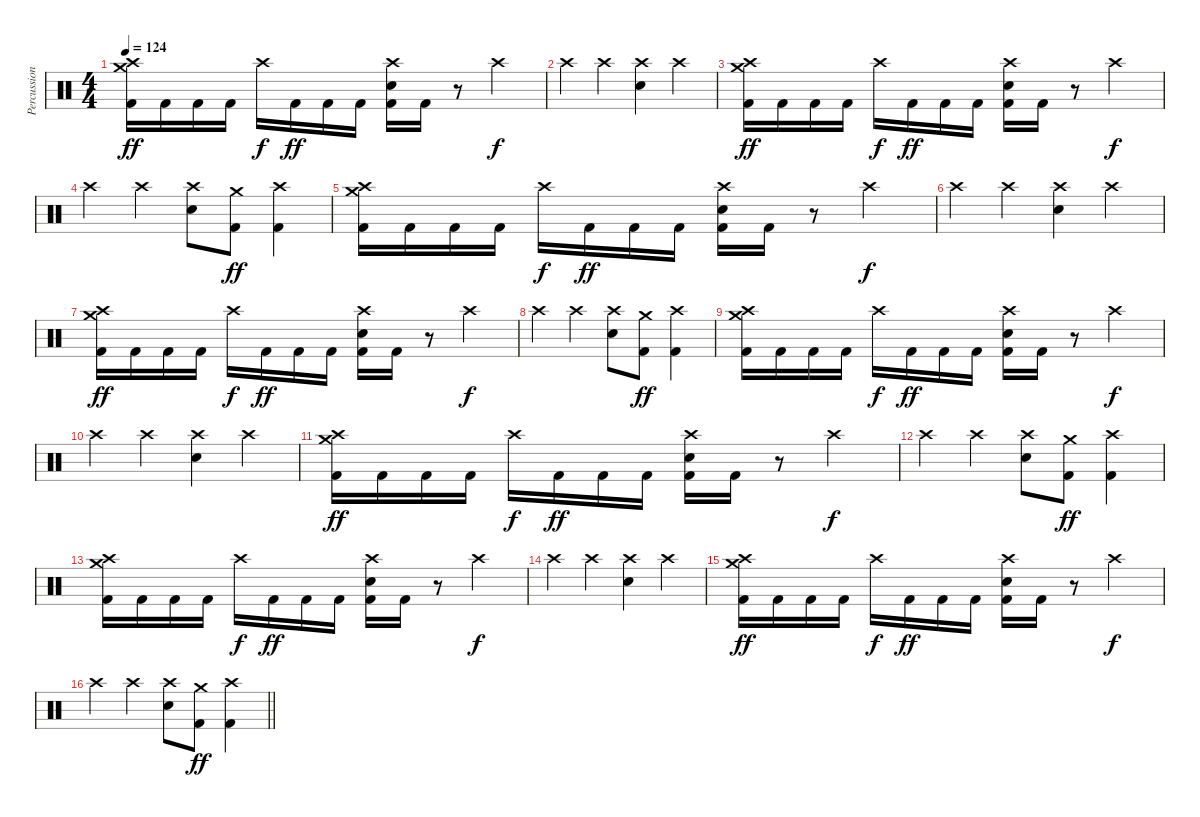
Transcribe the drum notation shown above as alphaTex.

\track ("Percussion" "Percussion") {instrument percussion}
\staff {score}
\articulation defaults
\ts (4 4)
\tempo 124
\clef neutral
\ks c
("Crash medium (hit)" "Crash high (hit)" "Kick (hit) 2").16{dy ff} "Kick (hit) 2".16 "Kick (hit) 2".16 "Kick (hit) 2".16 "Crash high (hit)".16{dy f} "Kick (hit) 2".16{dy ff} "Kick (hit) 2".16 "Kick (hit) 2".16 ("Crash high (hit)" "Electric Snare (hit)" "Kick (hit) 2").16 "Kick (hit) 2".16 r.8 "Crash high (hit)".4{dy f} |
"Crash high (hit)".4 "Crash high (hit)".4 ("Crash high (hit)" "Electric Snare (hit)").4 "Crash high (hit)".4 |
("Crash medium (hit)" "Crash high (hit)" "Kick (hit) 2").16{dy ff} "Kick (hit) 2".16 "Kick (hit) 2".16 "Kick (hit) 2".16 "Crash high (hit)".16{dy f} "Kick (hit) 2".16{dy ff} "Kick (hit) 2".16 "Kick (hit) 2".16 ("Crash high (hit)" "Electric Snare (hit)" "Kick (hit) 2").16 "Kick (hit) 2".16 r.8 "Crash high (hit)".4{dy f} |
"Crash high (hit)".4 "Crash high (hit)".4 ("Crash high (hit)" "Electric Snare (hit)").8 ("Crash medium (hit)" "Kick (hit) 2").8{dy ff} ("Crash high (hit)" "Kick (hit) 2").4 |
("Crash medium (hit)" "Crash high (hit)" "Kick (hit) 2").16 "Kick (hit) 2".16 "Kick (hit) 2".16 "Kick (hit) 2".16 "Crash high (hit)".16{dy f} "Kick (hit) 2".16{dy ff} "Kick (hit) 2".16 "Kick (hit) 2".16 ("Crash high (hit)" "Electric Snare (hit)" "Kick (hit) 2").16 "Kick (hit) 2".16 r.8 "Crash high (hit)".4{dy f} |
"Crash high (hit)".4 "Crash high (hit)".4 ("Crash high (hit)" "Electric Snare (hit)").4 "Crash high (hit)".4 |
("Crash medium (hit)" "Crash high (hit)" "Kick (hit) 2").16{dy ff} "Kick (hit) 2".16 "Kick (hit) 2".16 "Kick (hit) 2".16 "Crash high (hit)".16{dy f} "Kick (hit) 2".16{dy ff} "Kick (hit) 2".16 "Kick (hit) 2".16 ("Crash high (hit)" "Electric Snare (hit)" "Kick (hit) 2").16 "Kick (hit) 2".16 r.8 "Crash high (hit)".4{dy f} |
"Crash high (hit)".4 "Crash high (hit)".4 ("Crash high (hit)" "Electric Snare (hit)").8 ("Crash medium (hit)" "Kick (hit) 2").8{dy ff} ("Crash high (hit)" "Kick (hit) 2").4 |
("Crash medium (hit)" "Crash high (hit)" "Kick (hit) 2").16 "Kick (hit) 2".16 "Kick (hit) 2".16 "Kick (hit) 2".16 "Crash high (hit)".16{dy f} "Kick (hit) 2".16{dy ff} "Kick (hit) 2".16 "Kick (hit) 2".16 ("Crash high (hit)" "Electric Snare (hit)" "Kick (hit) 2").16 "Kick (hit) 2".16 r.8 "Crash high (hit)".4{dy f} |
"Crash high (hit)".4 "Crash high (hit)".4 ("Crash high (hit)" "Electric Snare (hit)").4 "Crash high (hit)".4 |
("Crash medium (hit)" "Crash high (hit)" "Kick (hit) 2").16{dy ff} "Kick (hit) 2".16 "Kick (hit) 2".16 "Kick (hit) 2".16 "Crash high (hit)".16{dy f} "Kick (hit) 2".16{dy ff} "Kick (hit) 2".16 "Kick (hit) 2".16 ("Crash high (hit)" "Electric Snare (hit)" "Kick (hit) 2").16 "Kick (hit) 2".16 r.8 "Crash high (hit)".4{dy f} |
"Crash high (hit)".4 "Crash high (hit)".4 ("Crash high (hit)" "Electric Snare (hit)").8 ("Crash medium (hit)" "Kick (hit) 2").8{dy ff} ("Crash high (hit)" "Kick (hit) 2").4 |
("Crash medium (hit)" "Crash high (hit)" "Kick (hit) 2").16 "Kick (hit) 2".16 "Kick (hit) 2".16 "Kick (hit) 2".16 "Crash high (hit)".16{dy f} "Kick (hit) 2".16{dy ff} "Kick (hit) 2".16 "Kick (hit) 2".16 ("Crash high (hit)" "Electric Snare (hit)" "Kick (hit) 2").16 "Kick (hit) 2".16 r.8 "Crash high (hit)".4{dy f} |
"Crash high (hit)".4 "Crash high (hit)".4 ("Crash high (hit)" "Electric Snare (hit)").4 "Crash high (hit)".4 |
("Crash medium (hit)" "Crash high (hit)" "Kick (hit) 2").16{dy ff} "Kick (hit) 2".16 "Kick (hit) 2".16 "Kick (hit) 2".16 "Crash high (hit)".16{dy f} "Kick (hit) 2".16{dy ff} "Kick (hit) 2".16 "Kick (hit) 2".16 ("Crash high (hit)" "Electric Snare (hit)" "Kick (hit) 2").16 "Kick (hit) 2".16 r.8 "Crash high (hit)".4{dy f} |
\barLineRight lightlight "Crash high (hit)".4 "Crash high (hit)".4
("Crash high (hit)" "Electric Snare (hit)").8 ("Crash medium (hit)" "Kick (hit) 2").8{dy ff} ("Crash high (hit)" "Kick (hit) 2").4
